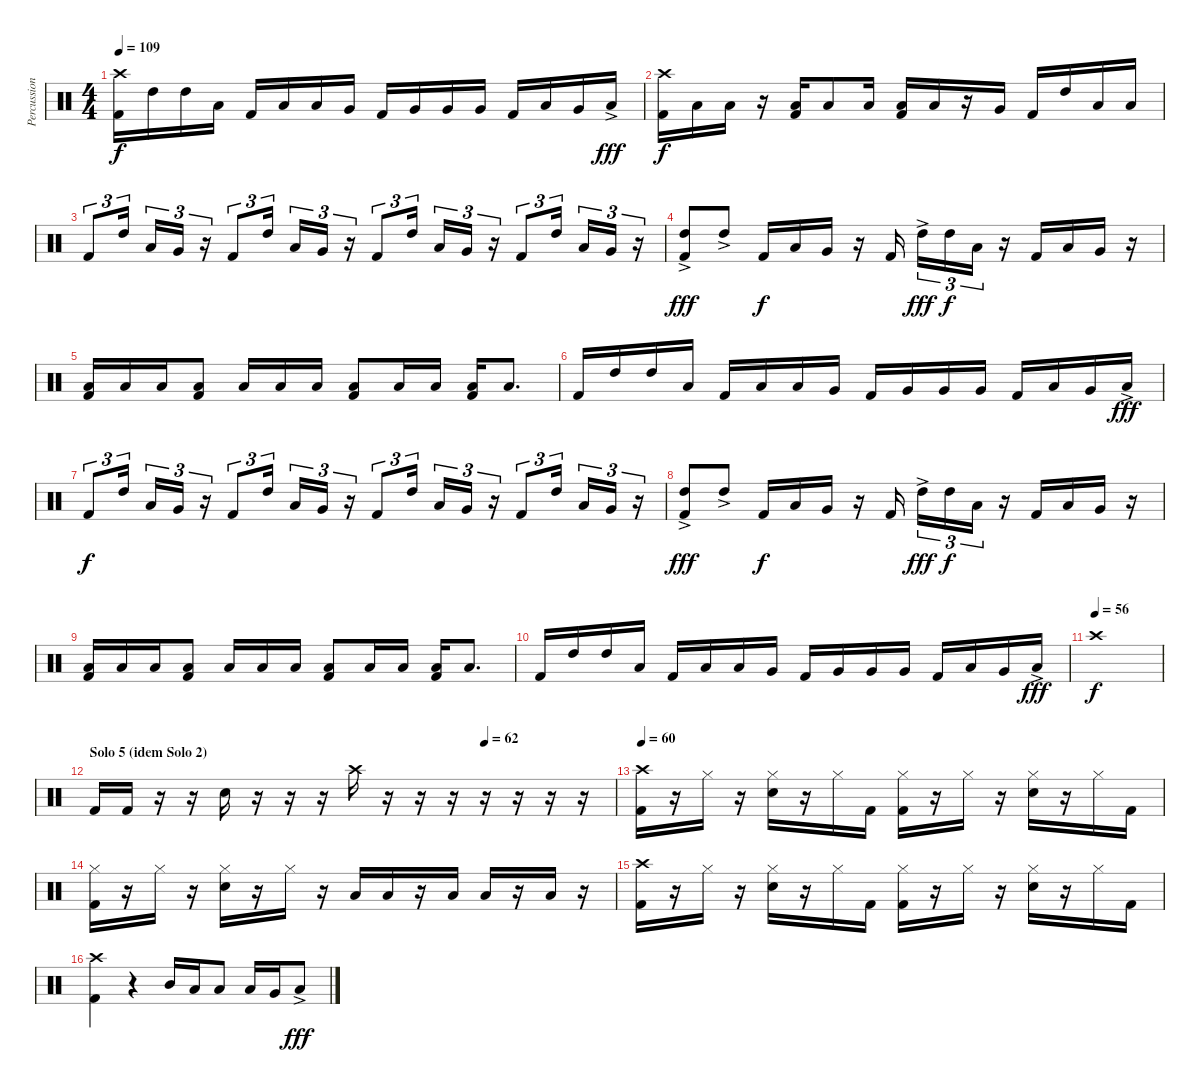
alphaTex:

\track ("Percussion" "Percussion") {instrument percussion}
\staff {score}
\articulation defaults
\ts (4 4)
\tempo 109
\clef neutral
\ks c
("Crash high (hit)" "Kick (hit) 2").16{dy f balance 8} "High Tom (hit)".16{balance 16} "High Tom (hit)".16 "Low Tom (hit)".16 "Kick (hit) 2".16{balance 8} "Low Tom (hit)".16{balance 16} "Low Tom (hit)".16 "Very Low Tom (hit)".16 "Kick (hit) 2".16{balance 8} "Very Low Tom (hit)".16{balance 0} "Very Low Tom (hit)".16 "Very Low Tom (hit)".16 "Kick (hit) 2".16{balance 8} "Low Tom (hit)".16{balance 16} "Very Low Tom (hit)".16 "Low Floor Tom (hit)"{ac}.16{dy fff} |
("Crash high (hit)" "Kick (hit) 2").16{dy f balance 8} "Low Tom (hit)".16{balance 0} "Low Tom (hit)".16 r.16 ("Low Tom (hit)" "Kick (hit) 2").16{balance 8} "Low Tom (hit)".8 "Low Tom (hit)".16 ("Low Tom (hit)" "Kick (hit) 2").16{balance 8} "Low Tom (hit)".16 r.16 "Very Low Tom (hit)".16 "Kick (hit) 2".16{balance 8} "High Tom (hit)".16{balance 16} "Low Tom (hit)".16 "Low Tom (hit)".16 |
"Kick (hit) 2".8{tu (3 2) balance 8} "High Tom (hit)".16{tu (3 2) balance 0} "Low Tom (hit)".16{tu (3 2)} "Very Low Tom (hit)".16{tu (3 2)} r.16{tu (3 2)} "Kick (hit) 2".8{tu (3 2) balance 8} "High Tom (hit)".16{tu (3 2) balance 16} "Low Tom (hit)".16{tu (3 2)} "Very Low Tom (hit)".16{tu (3 2)} r.16{tu (3 2)} "Kick (hit) 2".8{tu (3 2) balance 8} "High Tom (hit)".16{tu (3 2) balance 0} "Low Tom (hit)".16{tu (3 2)} "Very Low Tom (hit)".16{tu (3 2)} r.16{tu (3 2)} "Kick (hit) 2".8{tu (3 2) balance 8} "High Tom (hit)".16{tu (3 2) balance 16} "Low Tom (hit)".16{tu (3 2)} "Very Low Tom (hit)".16{tu (3 2)} r.16{tu (3 2)} |
("High Tom (hit)"{ac} "Kick (hit) 2").8{dy fff balance 8} "High Tom (hit)"{ac}.8{balance 16} "Kick (hit) 2".16{dy f balance 8} "Low Tom (hit)".16{balance 0} "Very Low Tom (hit)".16 r.16 "Kick (hit) 2".16{balance 8} "High Tom (hit)"{ac}.16{tu (3 2) dy fff balance 16} "High Tom (hit)".16{tu (3 2) dy f} "Low Tom (hit)".16{tu (3 2)} r.16 "Kick (hit) 2".16{balance 8} "Low Tom (hit)".16{balance 0} "Very Low Tom (hit)".16 r.16 |
("Low Tom (hit)" "Kick (hit) 2").16 "Low Tom (hit)".16{balance 16} "Low Tom (hit)".16 ("Low Tom (hit)" "Kick (hit) 2").8{balance 8} "Low Tom (hit)".16 "Low Tom (hit)".16{balance 0} "Low Tom (hit)".16 ("Low Tom (hit)" "Kick (hit) 2").8{balance 8} "Low Tom (hit)".16 "Low Tom (hit)".16 ("Low Tom (hit)" "Kick (hit) 2").16{balance 8} "Low Tom (hit)".8{d balance 16} |
"Kick (hit) 2".16{balance 8} "High Tom (hit)".16{balance 16} "High Tom (hit)".16 "Low Tom (hit)".16 "Kick (hit) 2".16{balance 8} "Low Tom (hit)".16{balance 16} "Low Tom (hit)".16 "Very Low Tom (hit)".16 "Kick (hit) 2".16{balance 8} "Very Low Tom (hit)".16{balance 0} "Very Low Tom (hit)".16 "Very Low Tom (hit)".16 "Kick (hit) 2".16{balance 8} "Low Tom (hit)".16{balance 16} "Very Low Tom (hit)".16 "Low Floor Tom (hit)"{ac}.16{dy fff} |
"Kick (hit) 2".8{tu (3 2) dy f balance 8} "High Tom (hit)".16{tu (3 2) balance 0} "Low Tom (hit)".16{tu (3 2)} "Very Low Tom (hit)".16{tu (3 2)} r.16{tu (3 2)} "Kick (hit) 2".8{tu (3 2) balance 8} "High Tom (hit)".16{tu (3 2) balance 16} "Low Tom (hit)".16{tu (3 2)} "Very Low Tom (hit)".16{tu (3 2)} r.16{tu (3 2)} "Kick (hit) 2".8{tu (3 2) balance 8} "High Tom (hit)".16{tu (3 2) balance 0} "Low Tom (hit)".16{tu (3 2)} "Very Low Tom (hit)".16{tu (3 2)} r.16{tu (3 2)} "Kick (hit) 2".8{tu (3 2) balance 8} "High Tom (hit)".16{tu (3 2) balance 16} "Low Tom (hit)".16{tu (3 2)} "Very Low Tom (hit)".16{tu (3 2)} r.16{tu (3 2)} |
("High Tom (hit)"{ac} "Kick (hit) 2").8{dy fff balance 8} "High Tom (hit)"{ac}.8{balance 16} "Kick (hit) 2".16{dy f balance 8} "Low Tom (hit)".16{balance 0} "Very Low Tom (hit)".16 r.16 "Kick (hit) 2".16{balance 8} "High Tom (hit)"{ac}.16{tu (3 2) dy fff balance 16} "High Tom (hit)".16{tu (3 2) dy f} "Low Tom (hit)".16{tu (3 2)} r.16 "Kick (hit) 2".16{balance 8} "Low Tom (hit)".16{balance 0} "Very Low Tom (hit)".16 r.16 |
("Low Tom (hit)" "Kick (hit) 2").16 "Low Tom (hit)".16{balance 16} "Low Tom (hit)".16 ("Low Tom (hit)" "Kick (hit) 2").8{balance 8} "Low Tom (hit)".16 "Low Tom (hit)".16{balance 0} "Low Tom (hit)".16 ("Low Tom (hit)" "Kick (hit) 2").8{balance 8} "Low Tom (hit)".16 "Low Tom (hit)".16 ("Low Tom (hit)" "Kick (hit) 2").16{balance 8} "Low Tom (hit)".8{d balance 16} |
"Kick (hit) 2".16{balance 8} "High Tom (hit)".16{balance 16} "High Tom (hit)".16 "Low Tom (hit)".16 "Kick (hit) 2".16{balance 8} "Low Tom (hit)".16{balance 16} "Low Tom (hit)".16 "Very Low Tom (hit)".16 "Kick (hit) 2".16{balance 8} "Very Low Tom (hit)".16{balance 0} "Very Low Tom (hit)".16 "Very Low Tom (hit)".16 "Kick (hit) 2".16{balance 8} "Low Tom (hit)".16{balance 16} "Very Low Tom (hit)".16 "Low Floor Tom (hit)"{ac}.16{dy fff} |
\tempo (56)
"Crash high (hit)".1{dy f} |
\section ("" "Solo 5 (idem Solo 2)")
\tempo (62 0.75)
"Kick (hit) 2".16 "Kick (hit) 2".16 r.16 r.16 "Snare (hit) 2".16 r.16 r.16 r.16 "Crash high (hit)".16 r.16 r.16 r.16 r.16 r.16 r.16 r.16 |
\tempo 60
("Crash high (hit)" "Kick (hit) 2").16 r.16 "Hi-Hat (closed)".16 r.16 ("Hi-Hat (closed)" "Snare (hit) 2").16 r.16 "Hi-Hat (closed)".16 "Kick (hit) 2".16 ("Hi-Hat (closed)" "Kick (hit) 2").16 r.16 "Hi-Hat (closed)".16 r.16 ("Hi-Hat (closed)" "Snare (hit) 2").16 r.16 "Hi-Hat (closed)".16 "Kick (hit) 2".16 |
("Hi-Hat (closed)" "Kick (hit) 2").16 r.16 "Hi-Hat (closed)".16 r.16 ("Hi-Hat (closed)" "Snare (hit) 2").16 r.16 "Hi-Hat (closed)".16 r.16 "Low Floor Tom (hit)".16{balance 0} "Low Tom (hit)".16{balance 1} r.16 "Low Tom (hit)".16{balance 2} "Low Tom (hit)".16{balance 2} r.16 "Low Tom (hit)".16{balance 16} r.16 |
("Crash high (hit)" "Kick (hit) 2").16{balance 8} r.16 "Hi-Hat (closed)".16 r.16 ("Hi-Hat (closed)" "Snare (hit) 2").16 r.16 "Hi-Hat (closed)".16 "Kick (hit) 2".16 ("Hi-Hat (closed)" "Kick (hit) 2").16 r.16 "Hi-Hat (closed)".16 r.16 ("Hi-Hat (closed)" "Snare (hit) 2").16 r.16 "Hi-Hat (closed)".16 "Kick (hit) 2".16 |
("Crash high (hit)" "Kick (hit) 2").4 r.4 "Mid Tom (hit)".16{balance 0} "Low Tom (hit)".16 "Low Tom (hit)".8 "Low Tom (hit)".16{balance 16} "Very Low Tom (hit)".16 "Low Floor Tom (hit)"{ac}.8{dy fff balance 16}
